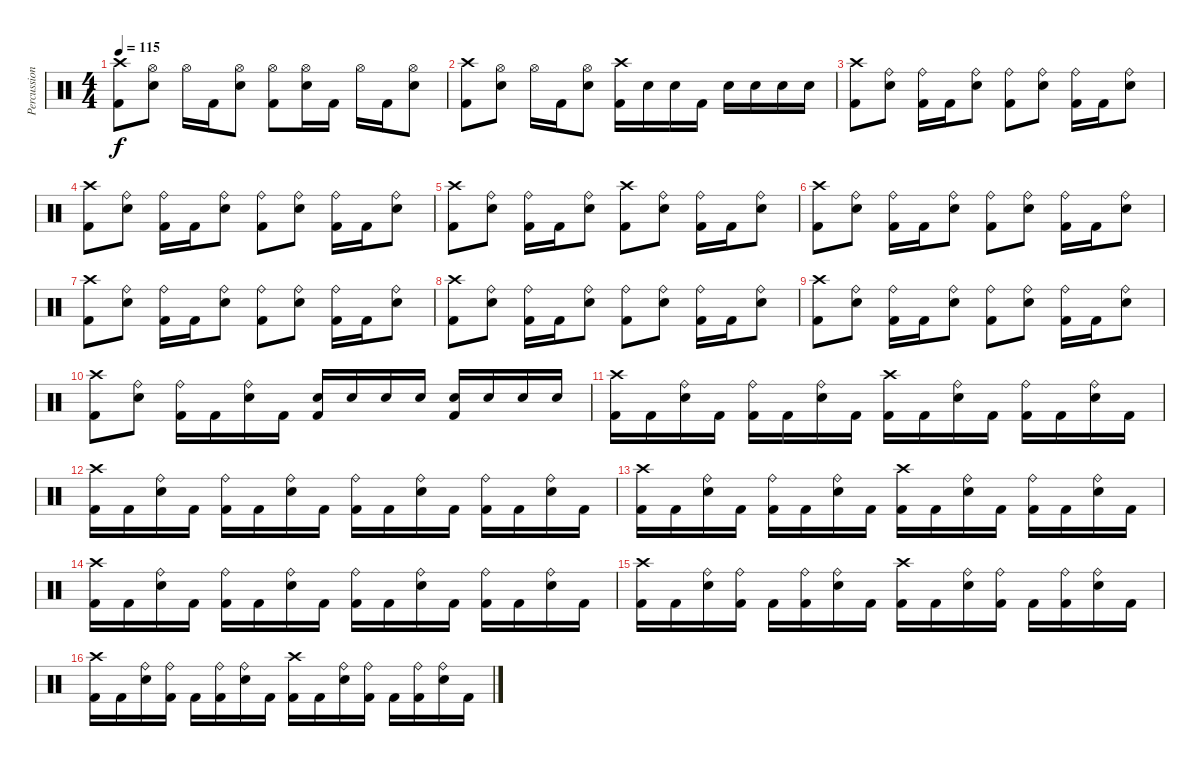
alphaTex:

\track ("Percussion" "Percussion") {instrument percussion}
\staff {score}
\articulation defaults
\ts (4 4)
\tempo 115
\clef neutral
\ks c
("Kick (hit) 2" "Crash high (hit)").8{dy f} ("Electric Snare (hit)" "Hi-Hat (open)").8 "Hi-Hat (open)".16 "Kick (hit) 2".16 ("Electric Snare (hit)" "Hi-Hat (open)").8 ("Kick (hit) 2" "Hi-Hat (open)").8 ("Electric Snare (hit)" "Hi-Hat (open)").16 "Kick (hit) 2".16 "Hi-Hat (open)".16 "Kick (hit) 2".16 ("Electric Snare (hit)" "Hi-Hat (open)").8 |
("Kick (hit) 2" "Crash high (hit)").8 ("Electric Snare (hit)" "Hi-Hat (open)").8 "Hi-Hat (open)".16 "Kick (hit) 2".16 ("Electric Snare (hit)" "Hi-Hat (open)").8 ("Kick (hit) 2" "Crash high (hit)").16 "Electric Snare (hit)".16 "Electric Snare (hit)".16 "Kick (hit) 2".16 "Electric Snare (hit)".16 "Electric Snare (hit)".16 "Electric Snare (hit)".16 "Electric Snare (hit)".16 |
("Kick (hit) 2" "Crash high (hit)").8 ("Electric Snare (hit)" "Ride (bell)").8 ("Kick (hit) 2" "Ride (bell)").16 "Kick (hit) 2".16 ("Electric Snare (hit)" "Ride (bell)").8 ("Kick (hit) 2" "Ride (bell)").8 ("Electric Snare (hit)" "Ride (bell)").8 ("Kick (hit) 2" "Ride (bell)").16 "Kick (hit) 2".16 ("Electric Snare (hit)" "Ride (bell)").8 |
("Kick (hit) 2" "Crash high (hit)").8 ("Electric Snare (hit)" "Ride (bell)").8 ("Kick (hit) 2" "Ride (bell)").16 "Kick (hit) 2".16 ("Electric Snare (hit)" "Ride (bell)").8 ("Kick (hit) 2" "Ride (bell)").8 ("Electric Snare (hit)" "Ride (bell)").8 ("Kick (hit) 2" "Ride (bell)").16 "Kick (hit) 2".16 ("Electric Snare (hit)" "Ride (bell)").8 |
("Kick (hit) 2" "Crash high (hit)").8 ("Electric Snare (hit)" "Ride (bell)").8 ("Kick (hit) 2" "Ride (bell)").16 "Kick (hit) 2".16 ("Electric Snare (hit)" "Ride (bell)").8 ("Kick (hit) 2" "Crash high (hit)").8 ("Electric Snare (hit)" "Ride (bell)").8 ("Kick (hit) 2" "Ride (bell)").16 "Kick (hit) 2".16 ("Electric Snare (hit)" "Ride (bell)").8 |
("Kick (hit) 2" "Crash high (hit)").8 ("Electric Snare (hit)" "Ride (bell)").8 ("Kick (hit) 2" "Ride (bell)").16 "Kick (hit) 2".16 ("Electric Snare (hit)" "Ride (bell)").8 ("Kick (hit) 2" "Ride (bell)").8 ("Electric Snare (hit)" "Ride (bell)").8 ("Kick (hit) 2" "Ride (bell)").16 "Kick (hit) 2".16 ("Electric Snare (hit)" "Ride (bell)").8 |
("Kick (hit) 2" "Crash high (hit)").8 ("Electric Snare (hit)" "Ride (bell)").8 ("Kick (hit) 2" "Ride (bell)").16 "Kick (hit) 2".16 ("Electric Snare (hit)" "Ride (bell)").8 ("Kick (hit) 2" "Ride (bell)").8 ("Electric Snare (hit)" "Ride (bell)").8 ("Kick (hit) 2" "Ride (bell)").16 "Kick (hit) 2".16 ("Electric Snare (hit)" "Ride (bell)").8 |
("Kick (hit) 2" "Crash high (hit)").8 ("Electric Snare (hit)" "Ride (bell)").8 ("Kick (hit) 2" "Ride (bell)").16 "Kick (hit) 2".16 ("Electric Snare (hit)" "Ride (bell)").8 ("Kick (hit) 2" "Ride (bell)").8 ("Electric Snare (hit)" "Ride (bell)").8 ("Kick (hit) 2" "Ride (bell)").16 "Kick (hit) 2".16 ("Electric Snare (hit)" "Ride (bell)").8 |
("Kick (hit) 2" "Crash high (hit)").8 ("Electric Snare (hit)" "Ride (bell)").8 ("Kick (hit) 2" "Ride (bell)").16 "Kick (hit) 2".16 ("Electric Snare (hit)" "Ride (bell)").8 ("Kick (hit) 2" "Ride (bell)").8 ("Electric Snare (hit)" "Ride (bell)").8 ("Kick (hit) 2" "Ride (bell)").16 "Kick (hit) 2".16 ("Electric Snare (hit)" "Ride (bell)").8 |
("Kick (hit) 2" "Crash high (hit)").8 ("Electric Snare (hit)" "Ride (bell)").8 ("Kick (hit) 2" "Ride (bell)").16 "Kick (hit) 2".16 ("Electric Snare (hit)" "Ride (bell)").16 "Kick (hit) 2".16 ("Electric Snare (hit)" "Kick (hit) 2").16 "Electric Snare (hit)".16 "Electric Snare (hit)".16 "Electric Snare (hit)".16 ("Electric Snare (hit)" "Kick (hit) 2").16 "Electric Snare (hit)".16 "Electric Snare (hit)".16 "Electric Snare (hit)".16 |
("Kick (hit) 2" "Crash high (hit)").16 "Kick (hit) 2".16 ("Electric Snare (hit)" "Ride (bell)").16 "Kick (hit) 2".16 ("Kick (hit) 2" "Ride (bell)").16 "Kick (hit) 2".16 ("Electric Snare (hit)" "Ride (bell)").16 "Kick (hit) 2".16 ("Kick (hit) 2" "Crash high (hit)").16 "Kick (hit) 2".16 ("Electric Snare (hit)" "Ride (bell)").16 "Kick (hit) 2".16 ("Kick (hit) 2" "Ride (bell)").16 "Kick (hit) 2".16 ("Electric Snare (hit)" "Ride (bell)").16 "Kick (hit) 2".16 |
("Kick (hit) 2" "Crash high (hit)").16 "Kick (hit) 2".16 ("Electric Snare (hit)" "Ride (bell)").16 "Kick (hit) 2".16 ("Kick (hit) 2" "Ride (bell)").16 "Kick (hit) 2".16 ("Electric Snare (hit)" "Ride (bell)").16 "Kick (hit) 2".16 ("Kick (hit) 2" "Ride (bell)").16 "Kick (hit) 2".16 ("Electric Snare (hit)" "Ride (bell)").16 "Kick (hit) 2".16 ("Kick (hit) 2" "Ride (bell)").16 "Kick (hit) 2".16 ("Electric Snare (hit)" "Ride (bell)").16 "Kick (hit) 2".16 |
("Kick (hit) 2" "Crash high (hit)").16 "Kick (hit) 2".16 ("Electric Snare (hit)" "Ride (bell)").16 "Kick (hit) 2".16 ("Kick (hit) 2" "Ride (bell)").16 "Kick (hit) 2".16 ("Electric Snare (hit)" "Ride (bell)").16 "Kick (hit) 2".16 ("Kick (hit) 2" "Crash high (hit)").16 "Kick (hit) 2".16 ("Electric Snare (hit)" "Ride (bell)").16 "Kick (hit) 2".16 ("Kick (hit) 2" "Ride (bell)").16 "Kick (hit) 2".16 ("Electric Snare (hit)" "Ride (bell)").16 "Kick (hit) 2".16 |
("Kick (hit) 2" "Crash high (hit)").16 "Kick (hit) 2".16 ("Electric Snare (hit)" "Ride (bell)").16 "Kick (hit) 2".16 ("Kick (hit) 2" "Ride (bell)").16 "Kick (hit) 2".16 ("Electric Snare (hit)" "Ride (bell)").16 "Kick (hit) 2".16 ("Kick (hit) 2" "Ride (bell)").16 "Kick (hit) 2".16 ("Electric Snare (hit)" "Ride (bell)").16 "Kick (hit) 2".16 ("Kick (hit) 2" "Ride (bell)").16 "Kick (hit) 2".16 ("Electric Snare (hit)" "Ride (bell)").16 "Kick (hit) 2".16 |
("Kick (hit) 2" "Crash high (hit)").16 "Kick (hit) 2".16 ("Electric Snare (hit)" "Ride (bell)").16 ("Kick (hit) 2" "Ride (bell)").16 "Kick (hit) 2".16 ("Kick (hit) 2" "Ride (bell)").16 ("Electric Snare (hit)" "Ride (bell)").16 "Kick (hit) 2".16 ("Kick (hit) 2" "Crash high (hit)").16 "Kick (hit) 2".16 ("Electric Snare (hit)" "Ride (bell)").16 ("Kick (hit) 2" "Ride (bell)").16 "Kick (hit) 2".16 ("Kick (hit) 2" "Ride (bell)").16 ("Electric Snare (hit)" "Ride (bell)").16 "Kick (hit) 2".16 |
("Kick (hit) 2" "Crash high (hit)").16 "Kick (hit) 2".16 ("Electric Snare (hit)" "Ride (bell)").16 ("Kick (hit) 2" "Ride (bell)").16 "Kick (hit) 2".16 ("Kick (hit) 2" "Ride (bell)").16 ("Electric Snare (hit)" "Ride (bell)").16 "Kick (hit) 2".16 ("Kick (hit) 2" "Crash high (hit)").16 "Kick (hit) 2".16 ("Electric Snare (hit)" "Ride (bell)").16 ("Kick (hit) 2" "Ride (bell)").16 "Kick (hit) 2".16 ("Kick (hit) 2" "Ride (bell)").16 ("Electric Snare (hit)" "Ride (bell)").16 "Kick (hit) 2".16
